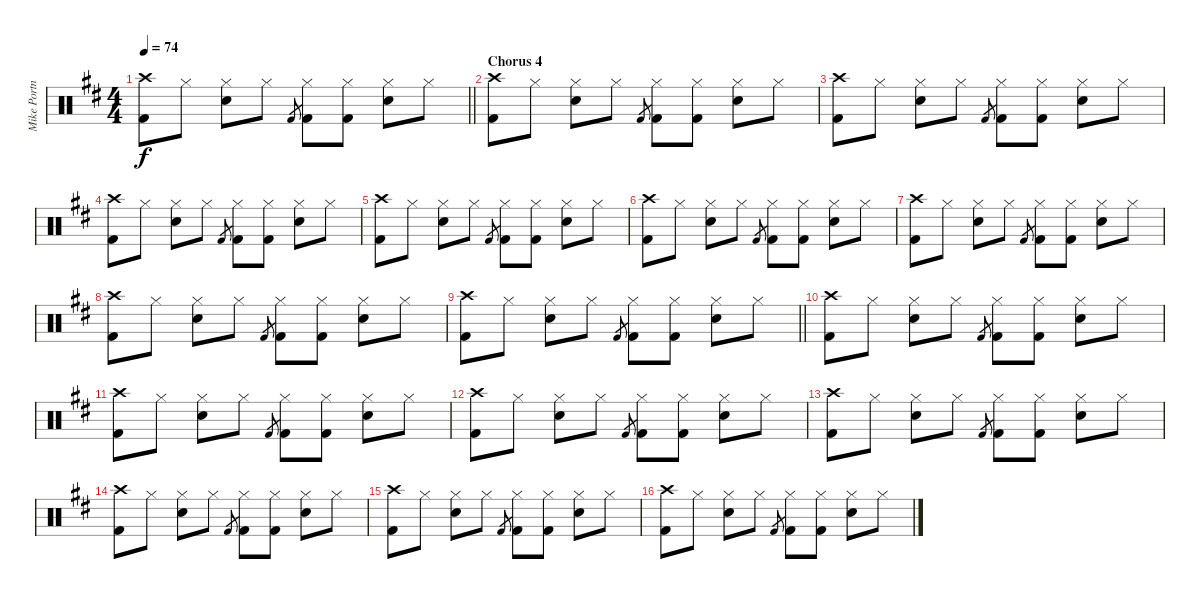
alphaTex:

\track ("Mike Portnoy" "Mike Portn") {instrument percussion}
\staff {score}
\articulation defaults
\ts (4 4)
\tempo 74
\clef neutral
\barLineRight lightlight
\ks bminor
("Crash high (hit)" "Kick (hit) 2").8{dy f} "Hi-Hat (closed)".8 ("Hi-Hat (closed)" "Snare (hit) 2").8 "Hi-Hat (closed)".8 "Kick (hit) 2".8{gr} ("Hi-Hat (closed)" "Kick (hit) 2").8 ("Hi-Hat (closed)" "Kick (hit) 2").8 ("Hi-Hat (closed)" "Snare (hit) 2").8 "Hi-Hat (closed)".8 |
\section ("" "Chorus 4")
("Crash high (hit)" "Kick (hit) 2").8 "Hi-Hat (closed)".8 ("Hi-Hat (closed)" "Snare (hit) 2").8 "Hi-Hat (closed)".8 "Kick (hit) 2".8{gr} ("Hi-Hat (closed)" "Kick (hit) 2").8 ("Hi-Hat (closed)" "Kick (hit) 2").8 ("Hi-Hat (closed)" "Snare (hit) 2").8 "Hi-Hat (closed)".8 |
("Crash high (hit)" "Kick (hit) 2").8 "Hi-Hat (closed)".8 ("Hi-Hat (closed)" "Snare (hit) 2").8 "Hi-Hat (closed)".8 "Kick (hit) 2".8{gr} ("Hi-Hat (closed)" "Kick (hit) 2").8 ("Hi-Hat (closed)" "Kick (hit) 2").8 ("Hi-Hat (closed)" "Snare (hit) 2").8 "Hi-Hat (closed)".8 |
("Crash high (hit)" "Kick (hit) 2").8 "Hi-Hat (closed)".8 ("Hi-Hat (closed)" "Snare (hit) 2").8 "Hi-Hat (closed)".8 "Kick (hit) 2".8{gr} ("Hi-Hat (closed)" "Kick (hit) 2").8 ("Hi-Hat (closed)" "Kick (hit) 2").8 ("Hi-Hat (closed)" "Snare (hit) 2").8 "Hi-Hat (closed)".8 |
("Crash high (hit)" "Kick (hit) 2").8 "Hi-Hat (closed)".8 ("Hi-Hat (closed)" "Snare (hit) 2").8 "Hi-Hat (closed)".8 "Kick (hit) 2".8{gr} ("Hi-Hat (closed)" "Kick (hit) 2").8 ("Hi-Hat (closed)" "Kick (hit) 2").8 ("Hi-Hat (closed)" "Snare (hit) 2").8 "Hi-Hat (closed)".8 |
("Crash high (hit)" "Kick (hit) 2").8 "Hi-Hat (closed)".8 ("Hi-Hat (closed)" "Snare (hit) 2").8 "Hi-Hat (closed)".8 "Kick (hit) 2".8{gr} ("Hi-Hat (closed)" "Kick (hit) 2").8 ("Hi-Hat (closed)" "Kick (hit) 2").8 ("Hi-Hat (closed)" "Snare (hit) 2").8 "Hi-Hat (closed)".8 |
("Crash high (hit)" "Kick (hit) 2").8 "Hi-Hat (closed)".8 ("Hi-Hat (closed)" "Snare (hit) 2").8 "Hi-Hat (closed)".8 "Kick (hit) 2".8{gr} ("Hi-Hat (closed)" "Kick (hit) 2").8 ("Hi-Hat (closed)" "Kick (hit) 2").8 ("Hi-Hat (closed)" "Snare (hit) 2").8 "Hi-Hat (closed)".8 |
("Crash high (hit)" "Kick (hit) 2").8 "Hi-Hat (closed)".8 ("Hi-Hat (closed)" "Snare (hit) 2").8 "Hi-Hat (closed)".8 "Kick (hit) 2".8{gr} ("Hi-Hat (closed)" "Kick (hit) 2").8 ("Hi-Hat (closed)" "Kick (hit) 2").8 ("Hi-Hat (closed)" "Snare (hit) 2").8 "Hi-Hat (closed)".8 |
\barLineRight lightlight
("Crash high (hit)" "Kick (hit) 2").8 "Hi-Hat (closed)".8 ("Hi-Hat (closed)" "Snare (hit) 2").8 "Hi-Hat (closed)".8 "Kick (hit) 2".8{gr} ("Hi-Hat (closed)" "Kick (hit) 2").8 ("Hi-Hat (closed)" "Kick (hit) 2").8 ("Hi-Hat (closed)" "Snare (hit) 2").8 "Hi-Hat (closed)".8 |
("Crash high (hit)" "Kick (hit) 2").8 "Hi-Hat (closed)".8 ("Hi-Hat (closed)" "Snare (hit) 2").8 "Hi-Hat (closed)".8 "Kick (hit) 2".8{gr} ("Hi-Hat (closed)" "Kick (hit) 2").8 ("Hi-Hat (closed)" "Kick (hit) 2").8 ("Hi-Hat (closed)" "Snare (hit) 2").8 "Hi-Hat (closed)".8 |
("Crash high (hit)" "Kick (hit) 2").8 "Hi-Hat (closed)".8 ("Hi-Hat (closed)" "Snare (hit) 2").8 "Hi-Hat (closed)".8 "Kick (hit) 2".8{gr} ("Hi-Hat (closed)" "Kick (hit) 2").8 ("Hi-Hat (closed)" "Kick (hit) 2").8 ("Hi-Hat (closed)" "Snare (hit) 2").8 "Hi-Hat (closed)".8 |
("Crash high (hit)" "Kick (hit) 2").8 "Hi-Hat (closed)".8 ("Hi-Hat (closed)" "Snare (hit) 2").8 "Hi-Hat (closed)".8 "Kick (hit) 2".8{gr} ("Hi-Hat (closed)" "Kick (hit) 2").8 ("Hi-Hat (closed)" "Kick (hit) 2").8 ("Hi-Hat (closed)" "Snare (hit) 2").8 "Hi-Hat (closed)".8 |
("Crash high (hit)" "Kick (hit) 2").8 "Hi-Hat (closed)".8 ("Hi-Hat (closed)" "Snare (hit) 2").8 "Hi-Hat (closed)".8 "Kick (hit) 2".8{gr} ("Hi-Hat (closed)" "Kick (hit) 2").8 ("Hi-Hat (closed)" "Kick (hit) 2").8 ("Hi-Hat (closed)" "Snare (hit) 2").8 "Hi-Hat (closed)".8 |
("Crash high (hit)" "Kick (hit) 2").8 "Hi-Hat (closed)".8 ("Hi-Hat (closed)" "Snare (hit) 2").8 "Hi-Hat (closed)".8 "Kick (hit) 2".8{gr} ("Hi-Hat (closed)" "Kick (hit) 2").8 ("Hi-Hat (closed)" "Kick (hit) 2").8 ("Hi-Hat (closed)" "Snare (hit) 2").8 "Hi-Hat (closed)".8 |
("Crash high (hit)" "Kick (hit) 2").8 "Hi-Hat (closed)".8 ("Hi-Hat (closed)" "Snare (hit) 2").8 "Hi-Hat (closed)".8 "Kick (hit) 2".8{gr} ("Hi-Hat (closed)" "Kick (hit) 2").8 ("Hi-Hat (closed)" "Kick (hit) 2").8 ("Hi-Hat (closed)" "Snare (hit) 2").8 "Hi-Hat (closed)".8 |
("Crash high (hit)" "Kick (hit) 2").8 "Hi-Hat (closed)".8 ("Hi-Hat (closed)" "Snare (hit) 2").8 "Hi-Hat (closed)".8 "Kick (hit) 2".8{gr} ("Hi-Hat (closed)" "Kick (hit) 2").8 ("Hi-Hat (closed)" "Kick (hit) 2").8 ("Hi-Hat (closed)" "Snare (hit) 2").8 "Hi-Hat (closed)".8
